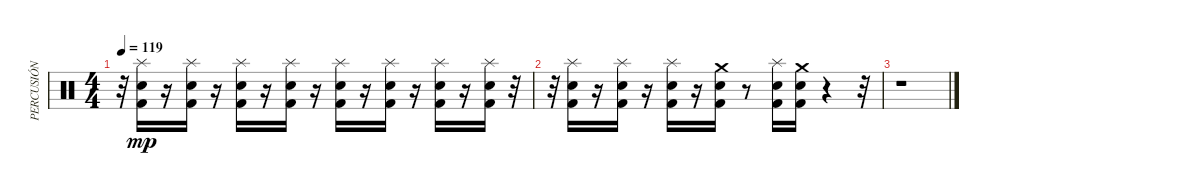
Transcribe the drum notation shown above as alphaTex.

\track ("PERCUSIÓN" "PERCUSIÓN") {instrument percussion}
\staff {score}
\articulation defaults
\ts (4 4)
\tempo 119
\clef neutral
\ks c
r.32{dy mp} ("Kick (hit) 2" "Snare (hit) 2" "Splash (hit)").16 r.16 ("Kick (hit) 2" "Snare (hit) 2" "Splash (hit)").16 r.16 ("Kick (hit) 2" "Snare (hit) 2" "Splash (hit)").16 r.16 ("Kick (hit) 2" "Snare (hit) 2" "Splash (hit)").16 r.16 ("Kick (hit) 2" "Snare (hit) 2" "Splash (hit)").16 r.16 ("Kick (hit) 2" "Snare (hit) 2" "Splash (hit)").16 r.16 ("Kick (hit) 2" "Snare (hit) 2" "Splash (hit)").16 r.16 ("Snare (hit) 2" "Kick (hit) 2" "Splash (hit)").16 r.32 |
r.32 ("Kick (hit) 2" "Snare (hit) 2" "Splash (hit)").16 r.16 ("Kick (hit) 2" "Snare (hit) 2" "Splash (hit)").16 r.16 ("Kick (hit) 2" "Snare (hit) 2" "Splash (hit)").16 r.16 ("Kick (hit) 2" "Snare (hit) 2" "Crash medium (hit)").16 r.8 ("Kick (hit) 2" "Snare (hit) 2" "Splash (hit)").16 ("Kick (hit) 2" "Snare (hit) 2" "Crash medium (hit)").16 r.4 r.32 |
r.1
